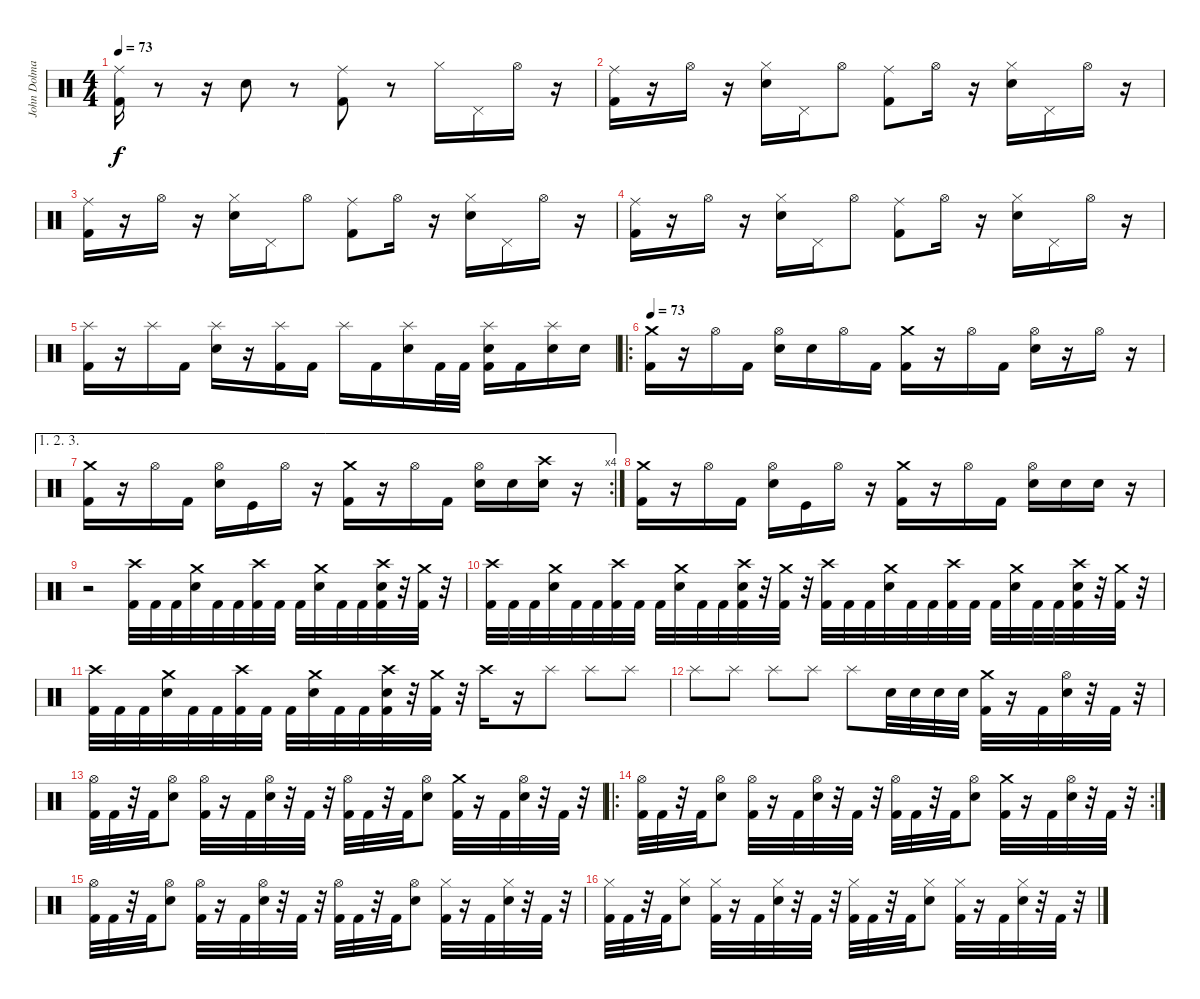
\track ("John Dolmayan (Drums)" "John Dolma") {instrument percussion}
\staff {score}
\articulation defaults
\ts (4 4)
\tempo 73
\clef neutral
\ks c
("Ride (middle)" "Kick (hit) 2").16{dy f} r.8 r.16 "Electric Snare (hit)".8 r.8 ("Ride (middle)" "Kick (hit) 2").8 r.8 "Hi-Hat (closed)".16 "Pedal Hi-Hat (hit)".16 "Hi-Hat (open)".16 r.16 |
("Ride (middle)" "Kick (hit) 2").16 r.16 "Hi-Hat (open)".16 r.16 ("Hi-Hat (closed)" "Electric Snare (hit)").16 "Pedal Hi-Hat (hit)".16 "Hi-Hat (open)".8 ("Ride (middle)" "Kick (hit) 2").8 "Hi-Hat (open)".16 r.16 ("Hi-Hat (closed)" "Electric Snare (hit)").16 "Pedal Hi-Hat (hit)".16 "Hi-Hat (open)".16 r.16 |
("Ride (middle)" "Kick (hit) 2").16 r.16 "Hi-Hat (open)".16 r.16 ("Hi-Hat (closed)" "Electric Snare (hit)").16 "Pedal Hi-Hat (hit)".16 "Hi-Hat (open)".8 ("Ride (middle)" "Kick (hit) 2").8 "Hi-Hat (open)".16 r.16 ("Hi-Hat (closed)" "Electric Snare (hit)").16 "Pedal Hi-Hat (hit)".16 "Hi-Hat (open)".16 r.16 |
("Ride (middle)" "Kick (hit) 2").16 r.16 "Hi-Hat (open)".16 r.16 ("Hi-Hat (closed)" "Electric Snare (hit)").16 "Pedal Hi-Hat (hit)".16 "Hi-Hat (open)".8 ("Ride (middle)" "Kick (hit) 2").8 "Hi-Hat (open)".16 r.16 ("Hi-Hat (closed)" "Electric Snare (hit)").16 "Pedal Hi-Hat (hit)".16 "Hi-Hat (open)".16 r.16 |
("Splash (hit)" "Kick (hit) 2").16 r.16 "Splash (hit)".16 "Kick (hit) 2".16 ("Splash (hit)" "Electric Snare (hit)").16 r.16 ("Splash (hit)" "Kick (hit) 2").16 "Kick (hit) 2".16 "Splash (hit)".16 "Kick (hit) 2".16 ("Splash (hit)" "Electric Snare (hit)").16 "Kick (hit) 2".32 "Kick (hit) 2".32 ("Splash (hit)" "Electric Snare (hit)" "Kick (hit) 2").16 "Kick (hit) 2".16 ("Splash (hit)" "Electric Snare (hit)").16 "Electric Snare (hit)".16 |
\ro
\tempo 73
("Crash medium (hit)" "Kick (hit) 2").16 r.16 "Hi-Hat (open)".16 "Kick (hit) 2".16 ("Hi-Hat (open)" "Electric Snare (hit)").16 "Electric Snare (hit)".16 "Hi-Hat (open)".16 "Kick (hit) 2".16 ("Crash medium (hit)" "Kick (hit) 2").16 r.16 "Hi-Hat (open)".16 "Kick (hit) 2".16 ("Hi-Hat (open)" "Electric Snare (hit)").16 r.16 "Hi-Hat (open)".16 r.16 |
\ae (1 2 3)
\rc 4
("Crash medium (hit)" "Kick (hit) 2").16 r.16 "Hi-Hat (open)".16 "Kick (hit) 2".16 ("Hi-Hat (open)" "Electric Snare (hit)").16 "Kick (hit)".16 "Hi-Hat (open)".16 r.16 ("Crash medium (hit)" "Kick (hit) 2").16 r.16 "Hi-Hat (open)".16 "Kick (hit) 2".16 ("Hi-Hat (open)" "Electric Snare (hit)").16 "Electric Snare (hit)".16 ("Crash high (hit)" "Electric Snare (hit)").16 r.16 |
("Crash medium (hit)" "Kick (hit) 2").16 r.16 "Hi-Hat (open)".16 "Kick (hit) 2".16 ("Hi-Hat (open)" "Electric Snare (hit)").16 "Kick (hit)".16 "Hi-Hat (open)".16 r.16 ("Crash medium (hit)" "Kick (hit) 2").16 r.16 "Hi-Hat (open)".16 "Kick (hit) 2".16 ("Hi-Hat (open)" "Electric Snare (hit)").16 "Electric Snare (hit)".16 "Electric Snare (hit)".16 r.16 |
r.2 ("Crash high (hit)" "Kick (hit) 2").32 "Kick (hit) 2".32 "Kick (hit) 2".32 ("Crash medium (hit)" "Electric Snare (hit)").32 "Kick (hit) 2".32 "Kick (hit) 2".32 ("Crash high (hit)" "Kick (hit) 2").32 "Kick (hit) 2".32 "Kick (hit) 2".32 ("Crash medium (hit)" "Electric Snare (hit)").32 "Kick (hit) 2".32 "Kick (hit) 2".32 ("Crash high (hit)" "Electric Snare (hit)" "Kick (hit) 2").32 r.32 ("Crash medium (hit)" "Kick (hit) 2").32 r.32 |
("Crash high (hit)" "Kick (hit) 2").32 "Kick (hit) 2".32 "Kick (hit) 2".32 ("Crash medium (hit)" "Electric Snare (hit)").32 "Kick (hit) 2".32 "Kick (hit) 2".32 ("Crash high (hit)" "Kick (hit) 2").32 "Kick (hit) 2".32 "Kick (hit) 2".32 ("Crash medium (hit)" "Electric Snare (hit)").32 "Kick (hit) 2".32 "Kick (hit) 2".32 ("Crash high (hit)" "Electric Snare (hit)" "Kick (hit) 2").32 r.32 ("Crash medium (hit)" "Kick (hit) 2").32 r.32 ("Crash high (hit)" "Kick (hit) 2").32 "Kick (hit) 2".32 "Kick (hit) 2".32 ("Crash medium (hit)" "Electric Snare (hit)").32 "Kick (hit) 2".32 "Kick (hit) 2".32 ("Crash high (hit)" "Kick (hit) 2").32 "Kick (hit) 2".32 "Kick (hit) 2".32 ("Crash medium (hit)" "Electric Snare (hit)").32 "Kick (hit) 2".32 "Kick (hit) 2".32 ("Crash high (hit)" "Electric Snare (hit)" "Kick (hit) 2").32 r.32 ("Crash medium (hit)" "Kick (hit) 2").32 r.32 |
("Crash high (hit)" "Kick (hit) 2").32 "Kick (hit) 2".32 "Kick (hit) 2".32 ("Crash medium (hit)" "Electric Snare (hit)").32 "Kick (hit) 2".32 "Kick (hit) 2".32 ("Crash high (hit)" "Kick (hit) 2").32 "Kick (hit) 2".32 "Kick (hit) 2".32 ("Crash medium (hit)" "Electric Snare (hit)").32 "Kick (hit) 2".32 "Kick (hit) 2".32 ("Crash high (hit)" "Electric Snare (hit)" "Kick (hit) 2").32 r.32 ("Crash medium (hit)" "Kick (hit) 2").32 r.32 "Crash high (hit)".16 r.16 "Splash (hit)".8 "Splash (hit)".8 "Splash (hit)".8 |
"Splash (hit)".8 "Splash (hit)".8 "Splash (hit)".8 "Splash (hit)".8 "Splash (hit)".8 "Electric Snare (hit)".32 "Electric Snare (hit)".32 "Electric Snare (hit)".32 "Electric Snare (hit)".32 ("Crash medium (hit)" "Kick (hit) 2").32 r.16 "Kick (hit) 2".32 ("Hi-Hat (open)" "Electric Snare (hit)").32 r.32 "Kick (hit) 2".32 r.32 |
("Hi-Hat (open)" "Kick (hit) 2").32 "Kick (hit) 2".32 r.32 "Kick (hit) 2".32 ("Hi-Hat (open)" "Electric Snare (hit)").8 ("Hi-Hat (open)" "Kick (hit) 2").32 r.16 "Kick (hit) 2".32 ("Hi-Hat (open)" "Electric Snare (hit)").32 r.32 "Kick (hit) 2".32 r.32 ("Hi-Hat (open)" "Kick (hit) 2").32 "Kick (hit) 2".32 r.32 "Kick (hit) 2".32 ("Hi-Hat (open)" "Electric Snare (hit)").8 ("Crash medium (hit)" "Kick (hit) 2").32 r.16 "Kick (hit) 2".32 ("Hi-Hat (open)" "Electric Snare (hit)").32 r.32 "Kick (hit) 2".32 r.32 |
\ro
\rc 2
("Hi-Hat (open)" "Kick (hit) 2").32 "Kick (hit) 2".32 r.32 "Kick (hit) 2".32 ("Hi-Hat (open)" "Electric Snare (hit)").8 ("Hi-Hat (open)" "Kick (hit) 2").32 r.16 "Kick (hit) 2".32 ("Hi-Hat (open)" "Electric Snare (hit)").32 r.32 "Kick (hit) 2".32 r.32 ("Hi-Hat (open)" "Kick (hit) 2").32 "Kick (hit) 2".32 r.32 "Kick (hit) 2".32 ("Hi-Hat (open)" "Electric Snare (hit)").8 ("Crash medium (hit)" "Kick (hit) 2").32 r.16 "Kick (hit) 2".32 ("Hi-Hat (open)" "Electric Snare (hit)").32 r.32 "Kick (hit) 2".32 r.32 |
("Hi-Hat (open)" "Kick (hit) 2").32 "Kick (hit) 2".32 r.32 "Kick (hit) 2".32 ("Hi-Hat (open)" "Electric Snare (hit)").8 ("Hi-Hat (open)" "Kick (hit) 2").32 r.16 "Kick (hit) 2".32 ("Hi-Hat (open)" "Electric Snare (hit)").32 r.32 "Kick (hit) 2".32 r.32 ("Hi-Hat (open)" "Kick (hit) 2").32 "Kick (hit) 2".32 r.32 "Kick (hit) 2".32 ("Hi-Hat (open)" "Electric Snare (hit)").8 ("Hi-Hat (closed)" "Kick (hit) 2").32 r.16 "Kick (hit) 2".32 ("Hi-Hat (closed)" "Electric Snare (hit)").32 r.32 "Kick (hit) 2".32 r.32 |
("Hi-Hat (closed)" "Kick (hit) 2").32 "Kick (hit) 2".32 r.32 "Kick (hit) 2".32 ("Hi-Hat (closed)" "Electric Snare (hit)").8 ("Hi-Hat (closed)" "Kick (hit) 2").32 r.16 "Kick (hit) 2".32 ("Hi-Hat (closed)" "Electric Snare (hit)").32 r.32 "Kick (hit) 2".32 r.32 ("Hi-Hat (closed)" "Kick (hit) 2").32 "Kick (hit) 2".32 r.32 "Kick (hit) 2".32 ("Hi-Hat (closed)" "Electric Snare (hit)").8 ("Hi-Hat (closed)" "Kick (hit) 2").32 r.16 "Kick (hit) 2".32 ("Hi-Hat (closed)" "Electric Snare (hit)").32 r.32 "Kick (hit) 2".32 r.32
